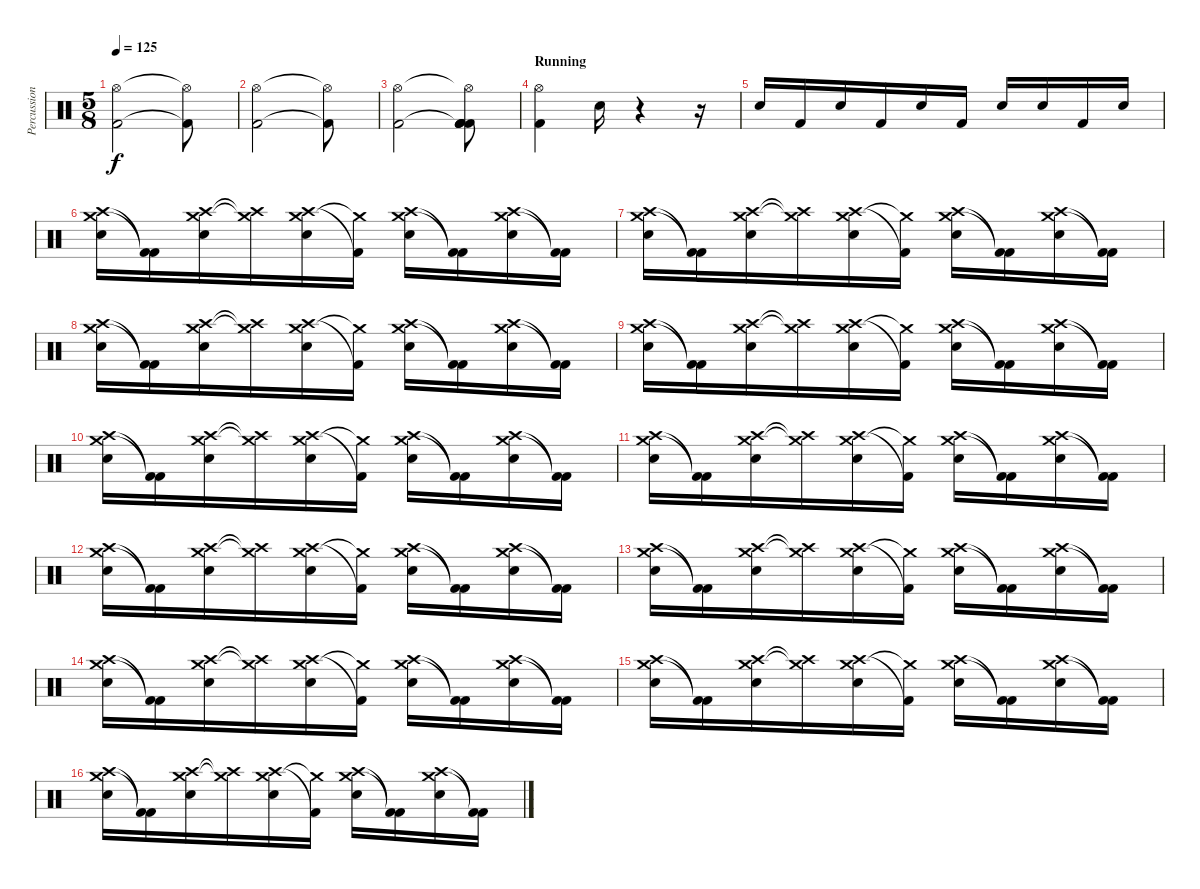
\track ("Percussion" "Percussion") {instrument percussion}
\staff {score}
\articulation defaults
\ts (5 8)
\tempo 125
\clef neutral
\ks c
("Hi-Hat (open)" "Kick (hit) 2").2{dy f} ("Hi-Hat (open)"{t} "Kick (hit) 2"{t}).8 |
("Hi-Hat (open)" "Kick (hit) 2").2 ("Hi-Hat (open)"{t} "Kick (hit) 2"{t}).8 |
("Hi-Hat (open)" "Kick (hit) 2").2 ("Hi-Hat (open)"{t} "Kick (hit) 2"{t} "Kick (hit) 2" "Kick (hit) 2" "Kick (hit) 2").8 |
\section ("" "Running")
("Hi-Hat (open)" "Kick (hit) 2").4 "Snare (hit) 2".16 r.4 r.16 |
"Snare (hit) 2".16 "Kick (hit) 2".16 "Snare (hit) 2".16 "Kick (hit) 2".16 "Snare (hit) 2".16 "Kick (hit) 2".16 "Snare (hit) 2".16 "Snare (hit) 2".16 "Kick (hit) 2".16 "Snare (hit) 2".16 |
("Crash high (hit)" "Crash medium (hit)" "Snare (hit) 2").16 ("Kick (hit) 2"{t} "Kick (hit) 2"{t}).16 ("Crash high (hit)" "Crash medium (hit)" "Snare (hit) 2").16 ("Crash high (hit)"{t} "Crash medium (hit)"{t}).16 ("Crash high (hit)" "Crash medium (hit)" "Snare (hit) 2").16 ("Kick (hit) 2"{t} "Crash medium (hit)"{t}).16 ("Crash high (hit)" "Crash medium (hit)" "Snare (hit) 2").16 ("Kick (hit) 2"{t} "Kick (hit) 2"{t}).16 ("Crash high (hit)" "Crash medium (hit)" "Snare (hit) 2").16 ("Kick (hit) 2"{t} "Kick (hit) 2"{t}).16 |
("Crash high (hit)" "Crash medium (hit)" "Snare (hit) 2").16 ("Kick (hit) 2"{t} "Kick (hit) 2"{t}).16 ("Crash high (hit)" "Crash medium (hit)" "Snare (hit) 2").16 ("Crash high (hit)"{t} "Crash medium (hit)"{t}).16 ("Crash high (hit)" "Crash medium (hit)" "Snare (hit) 2").16 ("Kick (hit) 2"{t} "Crash medium (hit)"{t}).16 ("Crash high (hit)" "Crash medium (hit)" "Snare (hit) 2").16 ("Kick (hit) 2"{t} "Kick (hit) 2"{t}).16 ("Crash high (hit)" "Crash medium (hit)" "Snare (hit) 2").16 ("Kick (hit) 2"{t} "Kick (hit) 2"{t}).16 |
("Crash high (hit)" "Crash medium (hit)" "Snare (hit) 2").16 ("Kick (hit) 2"{t} "Kick (hit) 2"{t}).16 ("Crash high (hit)" "Crash medium (hit)" "Snare (hit) 2").16 ("Crash high (hit)"{t} "Crash medium (hit)"{t}).16 ("Crash high (hit)" "Crash medium (hit)" "Snare (hit) 2").16 ("Kick (hit) 2"{t} "Crash medium (hit)"{t}).16 ("Crash high (hit)" "Crash medium (hit)" "Snare (hit) 2").16 ("Kick (hit) 2"{t} "Kick (hit) 2"{t}).16 ("Crash high (hit)" "Crash medium (hit)" "Snare (hit) 2").16 ("Kick (hit) 2"{t} "Kick (hit) 2"{t}).16 |
("Crash high (hit)" "Crash medium (hit)" "Snare (hit) 2").16 ("Kick (hit) 2"{t} "Kick (hit) 2"{t}).16 ("Crash high (hit)" "Crash medium (hit)" "Snare (hit) 2").16 ("Crash high (hit)"{t} "Crash medium (hit)"{t}).16 ("Crash high (hit)" "Crash medium (hit)" "Snare (hit) 2").16 ("Kick (hit) 2"{t} "Crash medium (hit)"{t}).16 ("Crash high (hit)" "Crash medium (hit)" "Snare (hit) 2").16 ("Kick (hit) 2"{t} "Kick (hit) 2"{t}).16 ("Crash high (hit)" "Crash medium (hit)" "Snare (hit) 2").16 ("Kick (hit) 2"{t} "Kick (hit) 2"{t}).16 |
("Crash high (hit)" "Crash medium (hit)" "Snare (hit) 2").16 ("Kick (hit) 2"{t} "Kick (hit) 2"{t}).16 ("Crash high (hit)" "Crash medium (hit)" "Snare (hit) 2").16 ("Crash high (hit)"{t} "Crash medium (hit)"{t}).16 ("Crash high (hit)" "Crash medium (hit)" "Snare (hit) 2").16 ("Kick (hit) 2"{t} "Crash medium (hit)"{t}).16 ("Crash high (hit)" "Crash medium (hit)" "Snare (hit) 2").16 ("Kick (hit) 2"{t} "Kick (hit) 2"{t}).16 ("Crash high (hit)" "Crash medium (hit)" "Snare (hit) 2").16 ("Kick (hit) 2"{t} "Kick (hit) 2"{t}).16 |
("Crash high (hit)" "Crash medium (hit)" "Snare (hit) 2").16 ("Kick (hit) 2"{t} "Kick (hit) 2"{t}).16 ("Crash high (hit)" "Crash medium (hit)" "Snare (hit) 2").16 ("Crash high (hit)"{t} "Crash medium (hit)"{t}).16 ("Crash high (hit)" "Crash medium (hit)" "Snare (hit) 2").16 ("Kick (hit) 2"{t} "Crash medium (hit)"{t}).16 ("Crash high (hit)" "Crash medium (hit)" "Snare (hit) 2").16 ("Kick (hit) 2"{t} "Kick (hit) 2"{t}).16 ("Crash high (hit)" "Crash medium (hit)" "Snare (hit) 2").16 ("Kick (hit) 2"{t} "Kick (hit) 2"{t}).16 |
("Crash high (hit)" "Crash medium (hit)" "Snare (hit) 2").16 ("Kick (hit) 2"{t} "Kick (hit) 2"{t}).16 ("Crash high (hit)" "Crash medium (hit)" "Snare (hit) 2").16 ("Crash high (hit)"{t} "Crash medium (hit)"{t}).16 ("Crash high (hit)" "Crash medium (hit)" "Snare (hit) 2").16 ("Kick (hit) 2"{t} "Crash medium (hit)"{t}).16 ("Crash high (hit)" "Crash medium (hit)" "Snare (hit) 2").16 ("Kick (hit) 2"{t} "Kick (hit) 2"{t}).16 ("Crash high (hit)" "Crash medium (hit)" "Snare (hit) 2").16 ("Kick (hit) 2"{t} "Kick (hit) 2"{t}).16 |
("Crash high (hit)" "Crash medium (hit)" "Snare (hit) 2").16 ("Kick (hit) 2"{t} "Kick (hit) 2"{t}).16 ("Crash high (hit)" "Crash medium (hit)" "Snare (hit) 2").16 ("Crash high (hit)"{t} "Crash medium (hit)"{t}).16 ("Crash high (hit)" "Crash medium (hit)" "Snare (hit) 2").16 ("Kick (hit) 2"{t} "Crash medium (hit)"{t}).16 ("Crash high (hit)" "Crash medium (hit)" "Snare (hit) 2").16 ("Kick (hit) 2"{t} "Kick (hit) 2"{t}).16 ("Crash high (hit)" "Crash medium (hit)" "Snare (hit) 2").16 ("Kick (hit) 2"{t} "Kick (hit) 2"{t}).16 |
("Crash high (hit)" "Crash medium (hit)" "Snare (hit) 2").16 ("Kick (hit) 2"{t} "Kick (hit) 2"{t}).16 ("Crash high (hit)" "Crash medium (hit)" "Snare (hit) 2").16 ("Crash high (hit)"{t} "Crash medium (hit)"{t}).16 ("Crash high (hit)" "Crash medium (hit)" "Snare (hit) 2").16 ("Kick (hit) 2"{t} "Crash medium (hit)"{t}).16 ("Crash high (hit)" "Crash medium (hit)" "Snare (hit) 2").16 ("Kick (hit) 2"{t} "Kick (hit) 2"{t}).16 ("Crash high (hit)" "Crash medium (hit)" "Snare (hit) 2").16 ("Kick (hit) 2"{t} "Kick (hit) 2"{t}).16 |
("Crash high (hit)" "Crash medium (hit)" "Snare (hit) 2").16 ("Kick (hit) 2"{t} "Kick (hit) 2"{t}).16 ("Crash high (hit)" "Crash medium (hit)" "Snare (hit) 2").16 ("Crash high (hit)"{t} "Crash medium (hit)"{t}).16 ("Crash high (hit)" "Crash medium (hit)" "Snare (hit) 2").16 ("Kick (hit) 2"{t} "Crash medium (hit)"{t}).16 ("Crash high (hit)" "Crash medium (hit)" "Snare (hit) 2").16 ("Kick (hit) 2"{t} "Kick (hit) 2"{t}).16 ("Crash high (hit)" "Crash medium (hit)" "Snare (hit) 2").16 ("Kick (hit) 2"{t} "Kick (hit) 2"{t}).16 |
("Crash high (hit)" "Crash medium (hit)" "Snare (hit) 2").16 ("Kick (hit) 2"{t} "Kick (hit) 2"{t}).16 ("Crash high (hit)" "Crash medium (hit)" "Snare (hit) 2").16 ("Crash high (hit)"{t} "Crash medium (hit)"{t}).16 ("Crash high (hit)" "Crash medium (hit)" "Snare (hit) 2").16 ("Kick (hit) 2"{t} "Crash medium (hit)"{t}).16 ("Crash high (hit)" "Crash medium (hit)" "Snare (hit) 2").16 ("Kick (hit) 2"{t} "Kick (hit) 2"{t}).16 ("Crash high (hit)" "Crash medium (hit)" "Snare (hit) 2").16 ("Kick (hit) 2"{t} "Kick (hit) 2"{t}).16
